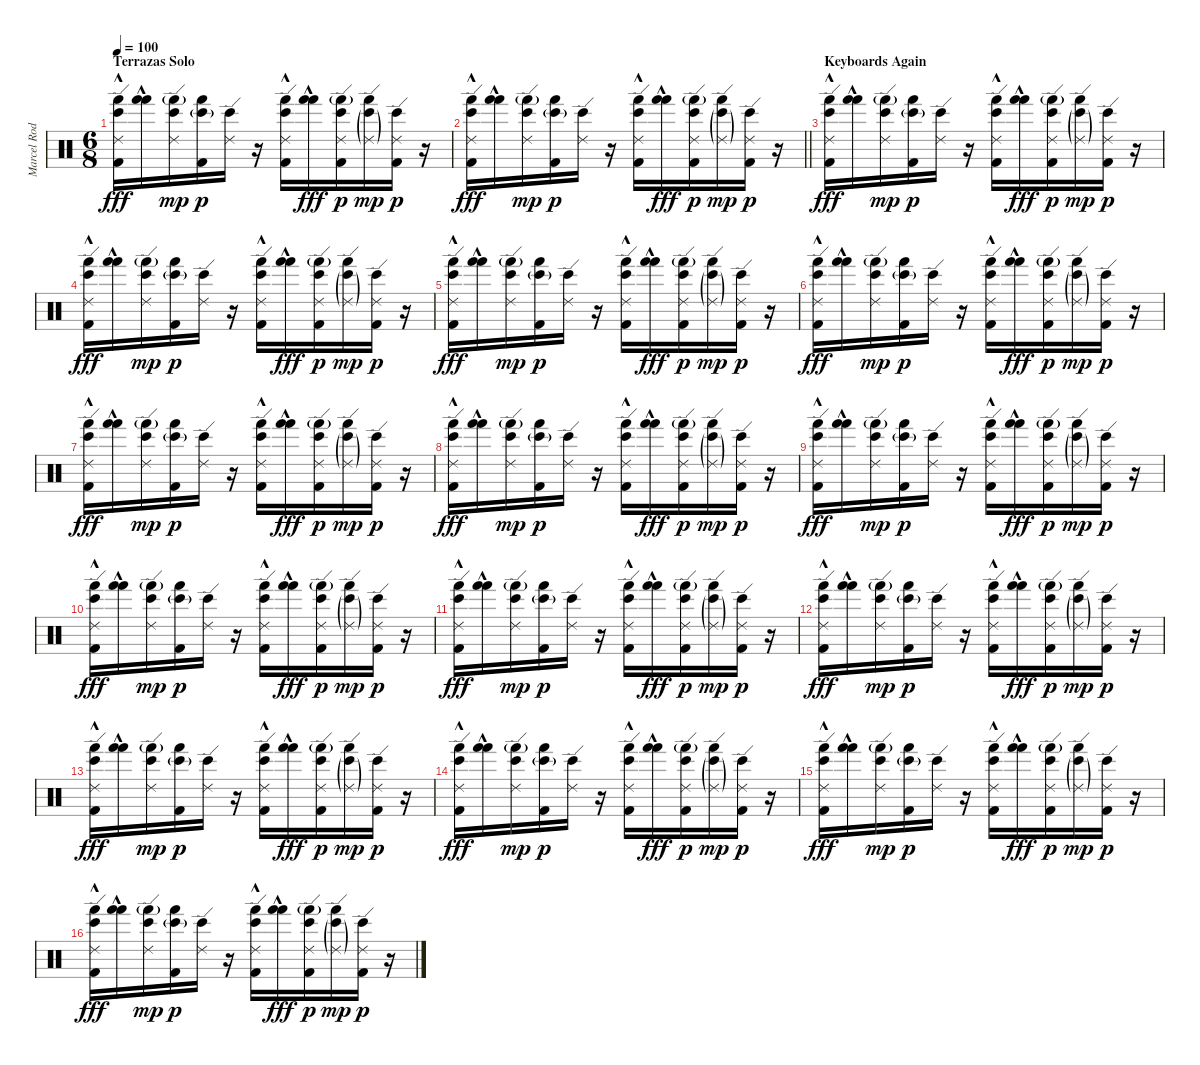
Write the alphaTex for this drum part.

\track ("Marcel Rodriguez & Thomas Pridgen" "Marcel Rod") {instrument percussion}
\staff {score}
\articulation defaults
\ts (6 8)
\section ("" "Terrazas Solo")
\tempo 100
\clef neutral
\ks c
("Ride (edge) 2" "Bongo High (hit)" "Hand (hit)"{hac} "Kick (hit) 2").16{dy fff} ("Hand (hit)" "Hand (hit)"{hac}).16 ("Ride (edge) 2" "Bongo High (hit)" "Hand (hit)"{g}).16{dy mp} ("Hand (hit)" "Bongo High (hit)"{g} "Kick (hit) 2").16{dy p} ("Ride (edge) 2" "Bongo High (hit)").16 r.16 ("Ride (edge) 2" "Bongo High (hit)" "Hand (hit)"{hac} "Kick (hit) 2").16 ("Hand (hit)" "Hand (hit)"{hac}).16{dy fff} ("Ride (edge) 2" "Bongo High (hit)" "Hand (hit)"{g} "Kick (hit) 2").16{dy p} ("Ride (edge) 2"{g} "Hand (hit)" "Bongo High (hit)"{g}).16{dy mp} ("Ride (edge) 2" "Bongo High (hit)" "Kick (hit) 2").16{dy p} r.16 |
\barLineRight lightlight
("Ride (edge) 2" "Bongo High (hit)" "Hand (hit)"{hac} "Kick (hit) 2").16{dy fff} ("Hand (hit)" "Hand (hit)"{hac}).16 ("Ride (edge) 2" "Bongo High (hit)" "Hand (hit)"{g}).16{dy mp} ("Hand (hit)" "Bongo High (hit)"{g} "Kick (hit) 2").16{dy p} ("Ride (edge) 2" "Bongo High (hit)").16 r.16 ("Ride (edge) 2" "Bongo High (hit)" "Hand (hit)"{hac} "Kick (hit) 2").16 ("Hand (hit)" "Hand (hit)"{hac}).16{dy fff} ("Ride (edge) 2" "Bongo High (hit)" "Hand (hit)"{g} "Kick (hit) 2").16{dy p} ("Ride (edge) 2"{g} "Hand (hit)" "Bongo High (hit)"{g}).16{dy mp} ("Ride (edge) 2" "Bongo High (hit)" "Kick (hit) 2").16{dy p} r.16 |
\section ("" "Keyboards Again")
("Ride (edge) 2" "Bongo High (hit)" "Hand (hit)"{hac} "Kick (hit) 2").16{dy fff} ("Hand (hit)" "Hand (hit)"{hac}).16 ("Ride (edge) 2" "Bongo High (hit)" "Hand (hit)"{g}).16{dy mp} ("Hand (hit)" "Bongo High (hit)"{g} "Kick (hit) 2").16{dy p} ("Ride (edge) 2" "Bongo High (hit)").16 r.16 ("Ride (edge) 2" "Bongo High (hit)" "Hand (hit)"{hac} "Kick (hit) 2").16 ("Hand (hit)" "Hand (hit)"{hac}).16{dy fff} ("Ride (edge) 2" "Bongo High (hit)" "Hand (hit)"{g} "Kick (hit) 2").16{dy p} ("Ride (edge) 2"{g} "Hand (hit)" "Bongo High (hit)"{g}).16{dy mp} ("Ride (edge) 2" "Bongo High (hit)" "Kick (hit) 2").16{dy p} r.16 |
("Ride (edge) 2" "Bongo High (hit)" "Hand (hit)"{hac} "Kick (hit) 2").16{dy fff} ("Hand (hit)" "Hand (hit)"{hac}).16 ("Ride (edge) 2" "Bongo High (hit)" "Hand (hit)"{g}).16{dy mp} ("Hand (hit)" "Bongo High (hit)"{g} "Kick (hit) 2").16{dy p} ("Ride (edge) 2" "Bongo High (hit)").16 r.16 ("Ride (edge) 2" "Bongo High (hit)" "Hand (hit)"{hac} "Kick (hit) 2").16 ("Hand (hit)" "Hand (hit)"{hac}).16{dy fff} ("Ride (edge) 2" "Bongo High (hit)" "Hand (hit)"{g} "Kick (hit) 2").16{dy p} ("Ride (edge) 2"{g} "Hand (hit)" "Bongo High (hit)"{g}).16{dy mp} ("Ride (edge) 2" "Bongo High (hit)" "Kick (hit) 2").16{dy p} r.16 |
("Ride (edge) 2" "Bongo High (hit)" "Hand (hit)"{hac} "Kick (hit) 2").16{dy fff} ("Hand (hit)" "Hand (hit)"{hac}).16 ("Ride (edge) 2" "Bongo High (hit)" "Hand (hit)"{g}).16{dy mp} ("Hand (hit)" "Bongo High (hit)"{g} "Kick (hit) 2").16{dy p} ("Ride (edge) 2" "Bongo High (hit)").16 r.16 ("Ride (edge) 2" "Bongo High (hit)" "Hand (hit)"{hac} "Kick (hit) 2").16 ("Hand (hit)" "Hand (hit)"{hac}).16{dy fff} ("Ride (edge) 2" "Bongo High (hit)" "Hand (hit)"{g} "Kick (hit) 2").16{dy p} ("Ride (edge) 2"{g} "Hand (hit)" "Bongo High (hit)"{g}).16{dy mp} ("Ride (edge) 2" "Bongo High (hit)" "Kick (hit) 2").16{dy p} r.16 |
("Ride (edge) 2" "Bongo High (hit)" "Hand (hit)"{hac} "Kick (hit) 2").16{dy fff} ("Hand (hit)" "Hand (hit)"{hac}).16 ("Ride (edge) 2" "Bongo High (hit)" "Hand (hit)"{g}).16{dy mp} ("Hand (hit)" "Bongo High (hit)"{g} "Kick (hit) 2").16{dy p} ("Ride (edge) 2" "Bongo High (hit)").16 r.16 ("Ride (edge) 2" "Bongo High (hit)" "Hand (hit)"{hac} "Kick (hit) 2").16 ("Hand (hit)" "Hand (hit)"{hac}).16{dy fff} ("Ride (edge) 2" "Bongo High (hit)" "Hand (hit)"{g} "Kick (hit) 2").16{dy p} ("Ride (edge) 2"{g} "Hand (hit)" "Bongo High (hit)"{g}).16{dy mp} ("Ride (edge) 2" "Bongo High (hit)" "Kick (hit) 2").16{dy p} r.16 |
("Ride (edge) 2" "Bongo High (hit)" "Hand (hit)"{hac} "Kick (hit) 2").16{dy fff} ("Hand (hit)" "Hand (hit)"{hac}).16 ("Ride (edge) 2" "Bongo High (hit)" "Hand (hit)"{g}).16{dy mp} ("Hand (hit)" "Bongo High (hit)"{g} "Kick (hit) 2").16{dy p} ("Ride (edge) 2" "Bongo High (hit)").16 r.16 ("Ride (edge) 2" "Bongo High (hit)" "Hand (hit)"{hac} "Kick (hit) 2").16 ("Hand (hit)" "Hand (hit)"{hac}).16{dy fff} ("Ride (edge) 2" "Bongo High (hit)" "Hand (hit)"{g} "Kick (hit) 2").16{dy p} ("Ride (edge) 2"{g} "Hand (hit)" "Bongo High (hit)"{g}).16{dy mp} ("Ride (edge) 2" "Bongo High (hit)" "Kick (hit) 2").16{dy p} r.16 |
("Ride (edge) 2" "Bongo High (hit)" "Hand (hit)"{hac} "Kick (hit) 2").16{dy fff} ("Hand (hit)" "Hand (hit)"{hac}).16 ("Ride (edge) 2" "Bongo High (hit)" "Hand (hit)"{g}).16{dy mp} ("Hand (hit)" "Bongo High (hit)"{g} "Kick (hit) 2").16{dy p} ("Ride (edge) 2" "Bongo High (hit)").16 r.16 ("Ride (edge) 2" "Bongo High (hit)" "Hand (hit)"{hac} "Kick (hit) 2").16 ("Hand (hit)" "Hand (hit)"{hac}).16{dy fff} ("Ride (edge) 2" "Bongo High (hit)" "Hand (hit)"{g} "Kick (hit) 2").16{dy p} ("Ride (edge) 2"{g} "Hand (hit)" "Bongo High (hit)"{g}).16{dy mp} ("Ride (edge) 2" "Bongo High (hit)" "Kick (hit) 2").16{dy p} r.16 |
("Ride (edge) 2" "Bongo High (hit)" "Hand (hit)"{hac} "Kick (hit) 2").16{dy fff} ("Hand (hit)" "Hand (hit)"{hac}).16 ("Ride (edge) 2" "Bongo High (hit)" "Hand (hit)"{g}).16{dy mp} ("Hand (hit)" "Bongo High (hit)"{g} "Kick (hit) 2").16{dy p} ("Ride (edge) 2" "Bongo High (hit)").16 r.16 ("Ride (edge) 2" "Bongo High (hit)" "Hand (hit)"{hac} "Kick (hit) 2").16 ("Hand (hit)" "Hand (hit)"{hac}).16{dy fff} ("Ride (edge) 2" "Bongo High (hit)" "Hand (hit)"{g} "Kick (hit) 2").16{dy p} ("Ride (edge) 2"{g} "Hand (hit)" "Bongo High (hit)"{g}).16{dy mp} ("Ride (edge) 2" "Bongo High (hit)" "Kick (hit) 2").16{dy p} r.16 |
("Ride (edge) 2" "Bongo High (hit)" "Hand (hit)"{hac} "Kick (hit) 2").16{dy fff} ("Hand (hit)" "Hand (hit)"{hac}).16 ("Ride (edge) 2" "Bongo High (hit)" "Hand (hit)"{g}).16{dy mp} ("Hand (hit)" "Bongo High (hit)"{g} "Kick (hit) 2").16{dy p} ("Ride (edge) 2" "Bongo High (hit)").16 r.16 ("Ride (edge) 2" "Bongo High (hit)" "Hand (hit)"{hac} "Kick (hit) 2").16 ("Hand (hit)" "Hand (hit)"{hac}).16{dy fff} ("Ride (edge) 2" "Bongo High (hit)" "Hand (hit)"{g} "Kick (hit) 2").16{dy p} ("Ride (edge) 2"{g} "Hand (hit)" "Bongo High (hit)"{g}).16{dy mp} ("Ride (edge) 2" "Bongo High (hit)" "Kick (hit) 2").16{dy p} r.16 |
("Ride (edge) 2" "Bongo High (hit)" "Hand (hit)"{hac} "Kick (hit) 2").16{dy fff} ("Hand (hit)" "Hand (hit)"{hac}).16 ("Ride (edge) 2" "Bongo High (hit)" "Hand (hit)"{g}).16{dy mp} ("Hand (hit)" "Bongo High (hit)"{g} "Kick (hit) 2").16{dy p} ("Ride (edge) 2" "Bongo High (hit)").16 r.16 ("Ride (edge) 2" "Bongo High (hit)" "Hand (hit)"{hac} "Kick (hit) 2").16 ("Hand (hit)" "Hand (hit)"{hac}).16{dy fff} ("Ride (edge) 2" "Bongo High (hit)" "Hand (hit)"{g} "Kick (hit) 2").16{dy p} ("Ride (edge) 2"{g} "Hand (hit)" "Bongo High (hit)"{g}).16{dy mp} ("Ride (edge) 2" "Bongo High (hit)" "Kick (hit) 2").16{dy p} r.16 |
("Ride (edge) 2" "Bongo High (hit)" "Hand (hit)"{hac} "Kick (hit) 2").16{dy fff} ("Hand (hit)" "Hand (hit)"{hac}).16 ("Ride (edge) 2" "Bongo High (hit)" "Hand (hit)"{g}).16{dy mp} ("Hand (hit)" "Bongo High (hit)"{g} "Kick (hit) 2").16{dy p} ("Ride (edge) 2" "Bongo High (hit)").16 r.16 ("Ride (edge) 2" "Bongo High (hit)" "Hand (hit)"{hac} "Kick (hit) 2").16 ("Hand (hit)" "Hand (hit)"{hac}).16{dy fff} ("Ride (edge) 2" "Bongo High (hit)" "Hand (hit)"{g} "Kick (hit) 2").16{dy p} ("Ride (edge) 2"{g} "Hand (hit)" "Bongo High (hit)"{g}).16{dy mp} ("Ride (edge) 2" "Bongo High (hit)" "Kick (hit) 2").16{dy p} r.16 |
("Ride (edge) 2" "Bongo High (hit)" "Hand (hit)"{hac} "Kick (hit) 2").16{dy fff} ("Hand (hit)" "Hand (hit)"{hac}).16 ("Ride (edge) 2" "Bongo High (hit)" "Hand (hit)"{g}).16{dy mp} ("Hand (hit)" "Bongo High (hit)"{g} "Kick (hit) 2").16{dy p} ("Ride (edge) 2" "Bongo High (hit)").16 r.16 ("Ride (edge) 2" "Bongo High (hit)" "Hand (hit)"{hac} "Kick (hit) 2").16 ("Hand (hit)" "Hand (hit)"{hac}).16{dy fff} ("Ride (edge) 2" "Bongo High (hit)" "Hand (hit)"{g} "Kick (hit) 2").16{dy p} ("Ride (edge) 2"{g} "Hand (hit)" "Bongo High (hit)"{g}).16{dy mp} ("Ride (edge) 2" "Bongo High (hit)" "Kick (hit) 2").16{dy p} r.16 |
("Ride (edge) 2" "Bongo High (hit)" "Hand (hit)"{hac} "Kick (hit) 2").16{dy fff} ("Hand (hit)" "Hand (hit)"{hac}).16 ("Ride (edge) 2" "Bongo High (hit)" "Hand (hit)"{g}).16{dy mp} ("Hand (hit)" "Bongo High (hit)"{g} "Kick (hit) 2").16{dy p} ("Ride (edge) 2" "Bongo High (hit)").16 r.16 ("Ride (edge) 2" "Bongo High (hit)" "Hand (hit)"{hac} "Kick (hit) 2").16 ("Hand (hit)" "Hand (hit)"{hac}).16{dy fff} ("Ride (edge) 2" "Bongo High (hit)" "Hand (hit)"{g} "Kick (hit) 2").16{dy p} ("Ride (edge) 2"{g} "Hand (hit)" "Bongo High (hit)"{g}).16{dy mp} ("Ride (edge) 2" "Bongo High (hit)" "Kick (hit) 2").16{dy p} r.16 |
("Ride (edge) 2" "Bongo High (hit)" "Hand (hit)"{hac} "Kick (hit) 2").16{dy fff} ("Hand (hit)" "Hand (hit)"{hac}).16 ("Ride (edge) 2" "Bongo High (hit)" "Hand (hit)"{g}).16{dy mp} ("Hand (hit)" "Bongo High (hit)"{g} "Kick (hit) 2").16{dy p} ("Ride (edge) 2" "Bongo High (hit)").16 r.16 ("Ride (edge) 2" "Bongo High (hit)" "Hand (hit)"{hac} "Kick (hit) 2").16 ("Hand (hit)" "Hand (hit)"{hac}).16{dy fff} ("Ride (edge) 2" "Bongo High (hit)" "Hand (hit)"{g} "Kick (hit) 2").16{dy p} ("Ride (edge) 2"{g} "Hand (hit)" "Bongo High (hit)"{g}).16{dy mp} ("Ride (edge) 2" "Bongo High (hit)" "Kick (hit) 2").16{dy p} r.16 |
("Ride (edge) 2" "Bongo High (hit)" "Hand (hit)"{hac} "Kick (hit) 2").16{dy fff} ("Hand (hit)" "Hand (hit)"{hac}).16 ("Ride (edge) 2" "Bongo High (hit)" "Hand (hit)"{g}).16{dy mp} ("Hand (hit)" "Bongo High (hit)"{g} "Kick (hit) 2").16{dy p} ("Ride (edge) 2" "Bongo High (hit)").16 r.16 ("Ride (edge) 2" "Bongo High (hit)" "Hand (hit)"{hac} "Kick (hit) 2").16 ("Hand (hit)" "Hand (hit)"{hac}).16{dy fff} ("Ride (edge) 2" "Bongo High (hit)" "Hand (hit)"{g} "Kick (hit) 2").16{dy p} ("Ride (edge) 2"{g} "Hand (hit)" "Bongo High (hit)"{g}).16{dy mp} ("Ride (edge) 2" "Bongo High (hit)" "Kick (hit) 2").16{dy p} r.16
